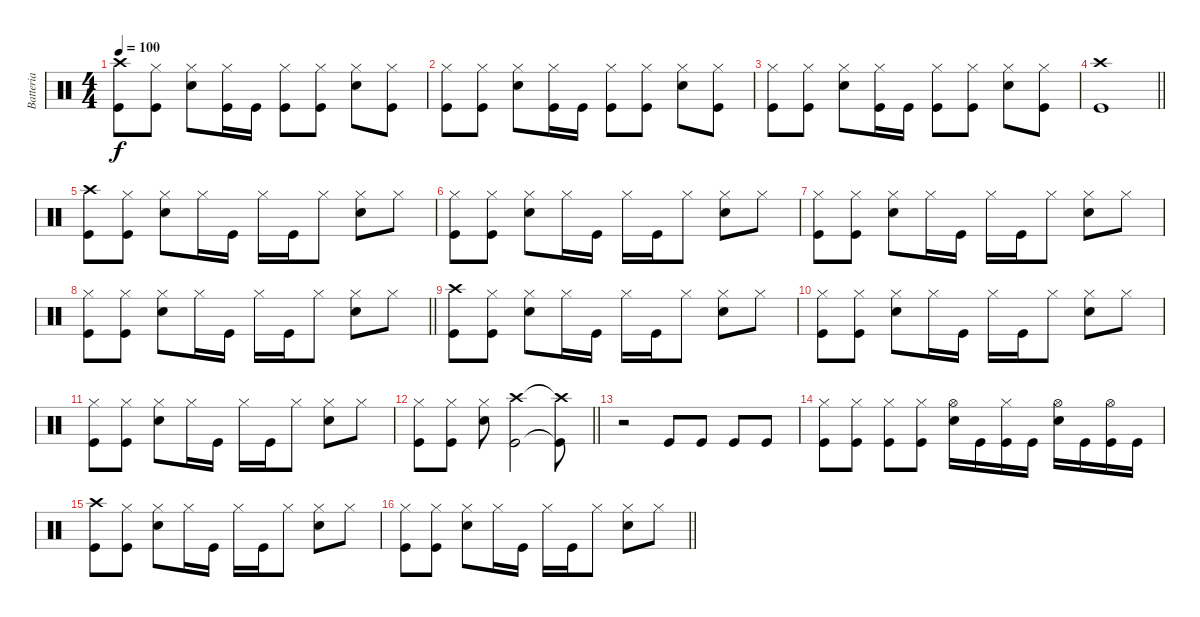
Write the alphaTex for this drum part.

\track ("Batteria" "Batteria") {instrument percussion}
\staff {score}
\articulation defaults
\ts (4 4)
\tempo 100
\clef neutral
\ks c
("Crash high (hit)" "Kick (hit)").8{dy f} ("Hi-Hat (closed)" "Kick (hit)").8 ("Snare (hit) 2" "Hi-Hat (closed)").8 ("Hi-Hat (closed)" "Kick (hit)").16 "Kick (hit)".16 ("Kick (hit)" "Hi-Hat (closed)").8 ("Kick (hit)" "Hi-Hat (closed)").8 ("Snare (hit) 2" "Hi-Hat (closed)").8 ("Kick (hit)" "Hi-Hat (closed)").8 |
("Hi-Hat (closed)" "Kick (hit)").8 ("Hi-Hat (closed)" "Kick (hit)").8 ("Snare (hit) 2" "Hi-Hat (closed)").8 ("Hi-Hat (closed)" "Kick (hit)").16 "Kick (hit)".16 ("Kick (hit)" "Hi-Hat (closed)").8 ("Kick (hit)" "Hi-Hat (closed)").8 ("Snare (hit) 2" "Hi-Hat (closed)").8 ("Kick (hit)" "Hi-Hat (closed)").8 |
("Hi-Hat (closed)" "Kick (hit)").8 ("Hi-Hat (closed)" "Kick (hit)").8 ("Snare (hit) 2" "Hi-Hat (closed)").8 ("Hi-Hat (closed)" "Kick (hit)").16 "Kick (hit)".16 ("Kick (hit)" "Hi-Hat (closed)").8 ("Kick (hit)" "Hi-Hat (closed)").8 ("Snare (hit) 2" "Hi-Hat (closed)").8 ("Kick (hit)" "Hi-Hat (closed)").8 |
\barLineRight lightlight
("Crash high (hit)" "Kick (hit)").1 |
("Kick (hit)" "Crash high (hit)").8 ("Kick (hit)" "Hi-Hat (closed)").8 ("Snare (hit) 2" "Hi-Hat (closed)").8 "Hi-Hat (closed)".16 "Kick (hit)".16 "Hi-Hat (closed)".16 "Kick (hit)".16 "Hi-Hat (closed)".8 ("Snare (hit) 2" "Hi-Hat (closed)").8 "Hi-Hat (closed)".8 |
("Kick (hit)" "Hi-Hat (closed)").8 ("Kick (hit)" "Hi-Hat (closed)").8 ("Snare (hit) 2" "Hi-Hat (closed)").8 "Hi-Hat (closed)".16 "Kick (hit)".16 "Hi-Hat (closed)".16 "Kick (hit)".16 "Hi-Hat (closed)".8 ("Snare (hit) 2" "Hi-Hat (closed)").8 "Hi-Hat (closed)".8 |
("Kick (hit)" "Hi-Hat (closed)").8 ("Kick (hit)" "Hi-Hat (closed)").8 ("Snare (hit) 2" "Hi-Hat (closed)").8 "Hi-Hat (closed)".16 "Kick (hit)".16 "Hi-Hat (closed)".16 "Kick (hit)".16 "Hi-Hat (closed)".8 ("Snare (hit) 2" "Hi-Hat (closed)").8 "Hi-Hat (closed)".8 |
\barLineRight lightlight
("Kick (hit)" "Hi-Hat (closed)").8 ("Kick (hit)" "Hi-Hat (closed)").8 ("Snare (hit) 2" "Hi-Hat (closed)").8 "Hi-Hat (closed)".16 "Kick (hit)".16 "Hi-Hat (closed)".16 "Kick (hit)".16 "Hi-Hat (closed)".8 ("Snare (hit) 2" "Hi-Hat (closed)").8 "Hi-Hat (closed)".8 |
("Kick (hit)" "Crash high (hit)").8 ("Kick (hit)" "Hi-Hat (closed)").8 ("Snare (hit) 2" "Hi-Hat (closed)").8 "Hi-Hat (closed)".16 "Kick (hit)".16 "Hi-Hat (closed)".16 "Kick (hit)".16 "Hi-Hat (closed)".8 ("Snare (hit) 2" "Hi-Hat (closed)").8 "Hi-Hat (closed)".8 |
("Kick (hit)" "Hi-Hat (closed)").8 ("Kick (hit)" "Hi-Hat (closed)").8 ("Snare (hit) 2" "Hi-Hat (closed)").8 "Hi-Hat (closed)".16 "Kick (hit)".16 "Hi-Hat (closed)".16 "Kick (hit)".16 "Hi-Hat (closed)".8 ("Snare (hit) 2" "Hi-Hat (closed)").8 "Hi-Hat (closed)".8 |
("Kick (hit)" "Hi-Hat (closed)").8 ("Kick (hit)" "Hi-Hat (closed)").8 ("Snare (hit) 2" "Hi-Hat (closed)").8 "Hi-Hat (closed)".16 "Kick (hit)".16 "Hi-Hat (closed)".16 "Kick (hit)".16 "Hi-Hat (closed)".8 ("Snare (hit) 2" "Hi-Hat (closed)").8 "Hi-Hat (closed)".8 |
\barLineRight lightlight
("Kick (hit)" "Hi-Hat (closed)").8 ("Kick (hit)" "Hi-Hat (closed)").8 ("Snare (hit) 2" "Hi-Hat (closed)").8 ("Crash high (hit)" "Kick (hit)").2 ("Crash high (hit)"{t} "Kick (hit)"{t}).8 |
r.2 "Kick (hit)".8 "Kick (hit)".8 "Kick (hit)".8 "Kick (hit)".8 |
("Kick (hit)" "Hi-Hat (closed)").8 ("Kick (hit)" "Hi-Hat (closed)").8 ("Kick (hit)" "Hi-Hat (closed)").8 ("Kick (hit)" "Hi-Hat (closed)").8 ("Snare (hit) 2" "Hi-Hat (open)").16 "Kick (hit)".16 ("Kick (hit)" "Hi-Hat (closed)").16 "Kick (hit)".16 ("Snare (hit) 2" "Hi-Hat (open)").16 "Kick (hit)".16 ("Kick (hit)" "Hi-Hat (open)").16 "Kick (hit)".16 |
("Crash high (hit)" "Kick (hit)").8 ("Kick (hit)" "Hi-Hat (closed)").8 ("Snare (hit) 2" "Hi-Hat (closed)").8 "Hi-Hat (closed)".16 "Kick (hit)".16 "Hi-Hat (closed)".16 "Kick (hit)".16 "Hi-Hat (closed)".8 ("Snare (hit) 2" "Hi-Hat (closed)").8 "Hi-Hat (closed)".8 |
\barLineRight lightlight
("Kick (hit)" "Hi-Hat (closed)").8 ("Kick (hit)" "Hi-Hat (closed)").8 ("Snare (hit) 2" "Hi-Hat (closed)").8 "Hi-Hat (closed)".16 "Kick (hit)".16 "Hi-Hat (closed)".16 "Kick (hit)".16 "Hi-Hat (closed)".8 ("Snare (hit) 2" "Hi-Hat (closed)").8 "Hi-Hat (closed)".8
